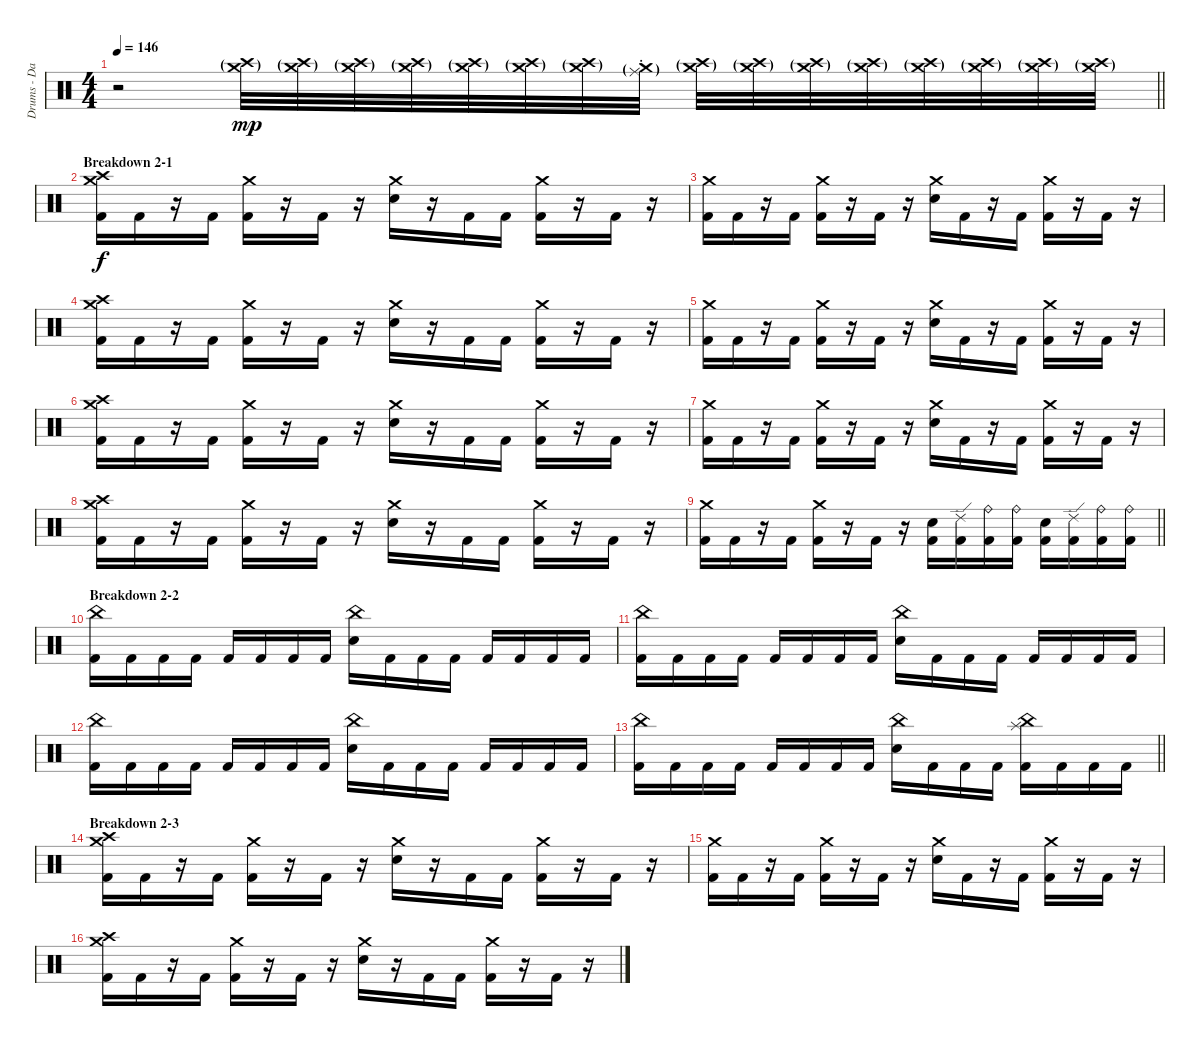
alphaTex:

\track ("Drums - DaDa" "Drums - Da") {instrument percussion}
\staff {score}
\articulation defaults
\ts (4 4)
\tempo 146
\clef neutral
\barLineRight lightlight
\ks c
r.2{dy f} ("Crash medium (hit)"{g} "Crash high (hit)"{g}).32{dy mp} ("Crash medium (hit)"{g} "Crash high (hit)"{g}).32 ("Crash medium (hit)"{g} "Crash high (hit)"{g}).32 ("Crash medium (hit)"{g} "Crash high (hit)"{g}).32 ("Crash medium (hit)"{g} "Crash high (hit)"{g}).32 ("Crash medium (hit)"{g} "Crash high (hit)"{g}).32 ("Crash medium (hit)"{g} "Crash high (hit)"{g}).32 ("Crash medium (hit)"{g} "Ride (choke)"{g}).32 ("Crash medium (hit)"{g} "Crash high (hit)"{g}).32 ("Crash medium (hit)"{g} "Crash high (hit)"{g}).32 ("Crash medium (hit)"{g} "Crash high (hit)"{g}).32 ("Crash medium (hit)"{g} "Crash high (hit)"{g}).32 ("Crash medium (hit)"{g} "Crash high (hit)"{g}).32 ("Crash medium (hit)"{g} "Crash high (hit)"{g}).32 ("Crash medium (hit)"{g} "Crash high (hit)"{g}).32 ("Crash medium (hit)"{g} "Crash high (hit)"{g}).32 |
\section ("" "Breakdown 2-1")
("Crash medium (hit)" "Crash high (hit)" "Kick (hit) 2").16{dy f} "Kick (hit) 2".16 r.16 "Kick (hit) 2".16 ("Crash medium (hit)" "Kick (hit) 2").16 r.16 "Kick (hit) 2".16 r.16 ("Crash medium (hit)" "Electric Snare (hit)").16 r.16 "Kick (hit) 2".16 "Kick (hit) 2".16 ("Crash medium (hit)" "Kick (hit) 2").16 r.16 "Kick (hit) 2".16 r.16 |
("Crash medium (hit)" "Kick (hit) 2").16 "Kick (hit) 2".16 r.16 "Kick (hit) 2".16 ("Crash medium (hit)" "Kick (hit) 2").16 r.16 "Kick (hit) 2".16 r.16 ("Crash medium (hit)" "Electric Snare (hit)").16 "Kick (hit) 2".16 r.16 "Kick (hit) 2".16 ("Crash medium (hit)" "Kick (hit) 2").16 r.16 "Kick (hit) 2".16 r.16 |
("Crash medium (hit)" "Crash high (hit)" "Kick (hit) 2").16 "Kick (hit) 2".16 r.16 "Kick (hit) 2".16 ("Crash medium (hit)" "Kick (hit) 2").16 r.16 "Kick (hit) 2".16 r.16 ("Crash medium (hit)" "Electric Snare (hit)").16 r.16 "Kick (hit) 2".16 "Kick (hit) 2".16 ("Crash medium (hit)" "Kick (hit) 2").16 r.16 "Kick (hit) 2".16 r.16 |
("Crash medium (hit)" "Kick (hit) 2").16 "Kick (hit) 2".16 r.16 "Kick (hit) 2".16 ("Crash medium (hit)" "Kick (hit) 2").16 r.16 "Kick (hit) 2".16 r.16 ("Crash medium (hit)" "Electric Snare (hit)").16 "Kick (hit) 2".16 r.16 "Kick (hit) 2".16 ("Crash medium (hit)" "Kick (hit) 2").16 r.16 "Kick (hit) 2".16 r.16 |
("Crash medium (hit)" "Crash high (hit)" "Kick (hit) 2").16 "Kick (hit) 2".16 r.16 "Kick (hit) 2".16 ("Crash medium (hit)" "Kick (hit) 2").16 r.16 "Kick (hit) 2".16 r.16 ("Crash medium (hit)" "Electric Snare (hit)").16 r.16 "Kick (hit) 2".16 "Kick (hit) 2".16 ("Crash medium (hit)" "Kick (hit) 2").16 r.16 "Kick (hit) 2".16 r.16 |
("Crash medium (hit)" "Kick (hit) 2").16 "Kick (hit) 2".16 r.16 "Kick (hit) 2".16 ("Crash medium (hit)" "Kick (hit) 2").16 r.16 "Kick (hit) 2".16 r.16 ("Crash medium (hit)" "Electric Snare (hit)").16 "Kick (hit) 2".16 r.16 "Kick (hit) 2".16 ("Crash medium (hit)" "Kick (hit) 2").16 r.16 "Kick (hit) 2".16 r.16 |
("Crash medium (hit)" "Crash high (hit)" "Kick (hit) 2").16 "Kick (hit) 2".16 r.16 "Kick (hit) 2".16 ("Crash medium (hit)" "Kick (hit) 2").16 r.16 "Kick (hit) 2".16 r.16 ("Crash medium (hit)" "Electric Snare (hit)").16 r.16 "Kick (hit) 2".16 "Kick (hit) 2".16 ("Crash medium (hit)" "Kick (hit) 2").16 r.16 "Kick (hit) 2".16 r.16 |
\barLineRight lightlight
("Crash medium (hit)" "Kick (hit) 2").16 "Kick (hit) 2".16 r.16 "Kick (hit) 2".16 ("Crash medium (hit)" "Kick (hit) 2").16 r.16 "Kick (hit) 2".16 r.16 ("Electric Snare (hit)" "Kick (hit) 2").16 ("Ride (edge) 2" "Kick (hit) 2").16 ("Ride (bell)" "Kick (hit) 2").16 ("Ride (bell)" "Kick (hit) 2").16 ("Electric Snare (hit)" "Kick (hit) 2").16 ("Ride (edge) 2" "Kick (hit) 2").16 ("Ride (bell)" "Kick (hit) 2").16 ("Ride (bell)" "Kick (hit) 2").16 |
\section ("" "Breakdown 2-2")
("China (hit)" "Kick (hit) 2").16 "Kick (hit) 2".16 "Kick (hit) 2".16 "Kick (hit) 2".16 "Kick (hit) 2".16 "Kick (hit) 2".16 "Kick (hit) 2".16 "Kick (hit) 2".16 ("China (hit)" "Electric Snare (hit)").16 "Kick (hit) 2".16 "Kick (hit) 2".16 "Kick (hit) 2".16 "Kick (hit) 2".16 "Kick (hit) 2".16 "Kick (hit) 2".16 "Kick (hit) 2".16 |
("China (hit)" "Kick (hit) 2").16 "Kick (hit) 2".16 "Kick (hit) 2".16 "Kick (hit) 2".16 "Kick (hit) 2".16 "Kick (hit) 2".16 "Kick (hit) 2".16 "Kick (hit) 2".16 ("China (hit)" "Electric Snare (hit)").16 "Kick (hit) 2".16 "Kick (hit) 2".16 "Kick (hit) 2".16 "Kick (hit) 2".16 "Kick (hit) 2".16 "Kick (hit) 2".16 "Kick (hit) 2".16 |
("China (hit)" "Kick (hit) 2").16 "Kick (hit) 2".16 "Kick (hit) 2".16 "Kick (hit) 2".16 "Kick (hit) 2".16 "Kick (hit) 2".16 "Kick (hit) 2".16 "Kick (hit) 2".16 ("China (hit)" "Electric Snare (hit)").16 "Kick (hit) 2".16 "Kick (hit) 2".16 "Kick (hit) 2".16 "Kick (hit) 2".16 "Kick (hit) 2".16 "Kick (hit) 2".16 "Kick (hit) 2".16 |
\barLineRight lightlight
("China (hit)" "Kick (hit) 2").16 "Kick (hit) 2".16 "Kick (hit) 2".16 "Kick (hit) 2".16 "Kick (hit) 2".16 "Kick (hit) 2".16 "Kick (hit) 2".16 "Kick (hit) 2".16 ("China (hit)" "Electric Snare (hit)").16 "Kick (hit) 2".16 "Kick (hit) 2".16 "Kick (hit) 2".16 ("China (hit)" "Splash (hit)" "Kick (hit) 2").16 "Kick (hit) 2".16 "Kick (hit) 2".16 "Kick (hit) 2".16 |
\section ("" "Breakdown 2-3")
("Crash medium (hit)" "Crash high (hit)" "Kick (hit) 2").16 "Kick (hit) 2".16 r.16 "Kick (hit) 2".16 ("Crash medium (hit)" "Kick (hit) 2").16 r.16 "Kick (hit) 2".16 r.16 ("Crash medium (hit)" "Electric Snare (hit)").16 r.16 "Kick (hit) 2".16 "Kick (hit) 2".16 ("Crash medium (hit)" "Kick (hit) 2").16 r.16 "Kick (hit) 2".16 r.16 |
("Crash medium (hit)" "Kick (hit) 2").16 "Kick (hit) 2".16 r.16 "Kick (hit) 2".16 ("Crash medium (hit)" "Kick (hit) 2").16 r.16 "Kick (hit) 2".16 r.16 ("Crash medium (hit)" "Electric Snare (hit)").16 "Kick (hit) 2".16 r.16 "Kick (hit) 2".16 ("Crash medium (hit)" "Kick (hit) 2").16 r.16 "Kick (hit) 2".16 r.16 |
("Crash medium (hit)" "Crash high (hit)" "Kick (hit) 2").16 "Kick (hit) 2".16 r.16 "Kick (hit) 2".16 ("Crash medium (hit)" "Kick (hit) 2").16 r.16 "Kick (hit) 2".16 r.16 ("Crash medium (hit)" "Electric Snare (hit)").16 r.16 "Kick (hit) 2".16 "Kick (hit) 2".16 ("Crash medium (hit)" "Kick (hit) 2").16 r.16 "Kick (hit) 2".16 r.16
